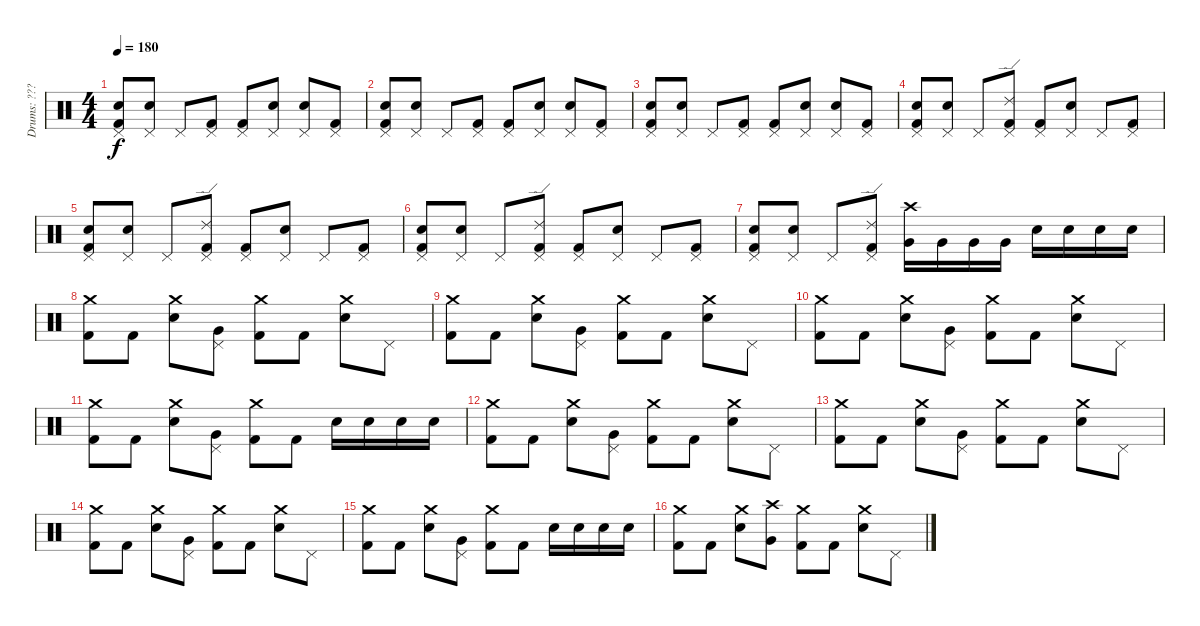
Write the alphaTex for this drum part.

\track ("Drums: ???" "Drums: ???") {instrument percussion}
\staff {score}
\articulation defaults
\ts (4 4)
\tempo 180
\clef neutral
\ks c
("Pedal Hi-Hat (hit)" "Electric Snare (hit)" "Kick (hit) 2").8{dy f} ("Pedal Hi-Hat (hit)" "Electric Snare (hit)").8 "Pedal Hi-Hat (hit)".8 ("Pedal Hi-Hat (hit)" "Kick (hit) 2").8 ("Pedal Hi-Hat (hit)" "Kick (hit) 2").8 ("Pedal Hi-Hat (hit)" "Electric Snare (hit)").8 ("Pedal Hi-Hat (hit)" "Electric Snare (hit)").8 ("Pedal Hi-Hat (hit)" "Kick (hit) 2").8 |
("Pedal Hi-Hat (hit)" "Electric Snare (hit)" "Kick (hit) 2").8 ("Pedal Hi-Hat (hit)" "Electric Snare (hit)").8 "Pedal Hi-Hat (hit)".8 ("Pedal Hi-Hat (hit)" "Kick (hit) 2").8 ("Pedal Hi-Hat (hit)" "Kick (hit) 2").8 ("Pedal Hi-Hat (hit)" "Electric Snare (hit)").8 ("Pedal Hi-Hat (hit)" "Electric Snare (hit)").8 ("Pedal Hi-Hat (hit)" "Kick (hit) 2").8 |
("Pedal Hi-Hat (hit)" "Electric Snare (hit)" "Kick (hit) 2").8 ("Pedal Hi-Hat (hit)" "Electric Snare (hit)").8 "Pedal Hi-Hat (hit)".8 ("Pedal Hi-Hat (hit)" "Kick (hit) 2").8 ("Pedal Hi-Hat (hit)" "Kick (hit) 2").8 ("Pedal Hi-Hat (hit)" "Electric Snare (hit)").8 ("Pedal Hi-Hat (hit)" "Electric Snare (hit)").8 ("Pedal Hi-Hat (hit)" "Kick (hit) 2").8 |
("Pedal Hi-Hat (hit)" "Electric Snare (hit)" "Kick (hit) 2").8 ("Pedal Hi-Hat (hit)" "Electric Snare (hit)").8 "Pedal Hi-Hat (hit)".8 ("Pedal Hi-Hat (hit)" "Ride (edge) 2" "Kick (hit) 2").8 ("Pedal Hi-Hat (hit)" "Kick (hit) 2").8 ("Pedal Hi-Hat (hit)" "Electric Snare (hit)").8 "Pedal Hi-Hat (hit)".8 ("Pedal Hi-Hat (hit)" "Kick (hit) 2").8 |
("Pedal Hi-Hat (hit)" "Electric Snare (hit)" "Kick (hit) 2").8 ("Pedal Hi-Hat (hit)" "Electric Snare (hit)").8 "Pedal Hi-Hat (hit)".8 ("Pedal Hi-Hat (hit)" "Ride (edge) 2" "Kick (hit) 2").8 ("Pedal Hi-Hat (hit)" "Kick (hit) 2").8 ("Pedal Hi-Hat (hit)" "Electric Snare (hit)").8 "Pedal Hi-Hat (hit)".8 ("Pedal Hi-Hat (hit)" "Kick (hit) 2").8 |
("Pedal Hi-Hat (hit)" "Electric Snare (hit)" "Kick (hit) 2").8 ("Pedal Hi-Hat (hit)" "Electric Snare (hit)").8 "Pedal Hi-Hat (hit)".8 ("Pedal Hi-Hat (hit)" "Ride (edge) 2" "Kick (hit) 2").8 ("Pedal Hi-Hat (hit)" "Kick (hit) 2").8 ("Pedal Hi-Hat (hit)" "Electric Snare (hit)").8 "Pedal Hi-Hat (hit)".8 ("Pedal Hi-Hat (hit)" "Kick (hit) 2").8 |
("Pedal Hi-Hat (hit)" "Electric Snare (hit)" "Kick (hit) 2").8 ("Pedal Hi-Hat (hit)" "Electric Snare (hit)").8 "Pedal Hi-Hat (hit)".8 ("Pedal Hi-Hat (hit)" "Ride (edge) 2" "Kick (hit) 2").8 ("Crash high (hit)" "Very Low Tom (hit)").16 "Very Low Tom (hit)".16 "Very Low Tom (hit)".16 "Very Low Tom (hit)".16 "Electric Snare (hit)".16 "Electric Snare (hit)".16 "Electric Snare (hit)".16 "Electric Snare (hit)".16 |
("Crash medium (hit)" "Kick (hit) 2").8 "Kick (hit) 2".8 ("Crash medium (hit)" "Electric Snare (hit)").8 ("Pedal Hi-Hat (hit)" "Very Low Tom (hit)").8 ("Crash medium (hit)" "Kick (hit) 2").8 "Kick (hit) 2".8 ("Crash medium (hit)" "Electric Snare (hit)").8 "Pedal Hi-Hat (hit)".8 |
("Crash medium (hit)" "Kick (hit) 2").8 "Kick (hit) 2".8 ("Crash medium (hit)" "Electric Snare (hit)").8 ("Pedal Hi-Hat (hit)" "Very Low Tom (hit)").8 ("Crash medium (hit)" "Kick (hit) 2").8 "Kick (hit) 2".8 ("Crash medium (hit)" "Electric Snare (hit)").8 "Pedal Hi-Hat (hit)".8 |
("Crash medium (hit)" "Kick (hit) 2").8 "Kick (hit) 2".8 ("Crash medium (hit)" "Electric Snare (hit)").8 ("Pedal Hi-Hat (hit)" "Very Low Tom (hit)").8 ("Crash medium (hit)" "Kick (hit) 2").8 "Kick (hit) 2".8 ("Crash medium (hit)" "Electric Snare (hit)").8 "Pedal Hi-Hat (hit)".8 |
("Crash medium (hit)" "Kick (hit) 2").8 "Kick (hit) 2".8 ("Crash medium (hit)" "Electric Snare (hit)").8 ("Pedal Hi-Hat (hit)" "Very Low Tom (hit)").8 ("Crash medium (hit)" "Kick (hit) 2").8 "Kick (hit) 2".8 "Electric Snare (hit)".16 "Electric Snare (hit)".16 "Electric Snare (hit)".16 "Electric Snare (hit)".16 |
("Crash medium (hit)" "Kick (hit) 2").8 "Kick (hit) 2".8 ("Crash medium (hit)" "Electric Snare (hit)").8 ("Pedal Hi-Hat (hit)" "Very Low Tom (hit)").8 ("Crash medium (hit)" "Kick (hit) 2").8 "Kick (hit) 2".8 ("Crash medium (hit)" "Electric Snare (hit)").8 "Pedal Hi-Hat (hit)".8 |
("Crash medium (hit)" "Kick (hit) 2").8 "Kick (hit) 2".8 ("Crash medium (hit)" "Electric Snare (hit)").8 ("Pedal Hi-Hat (hit)" "Very Low Tom (hit)").8 ("Crash medium (hit)" "Kick (hit) 2").8 "Kick (hit) 2".8 ("Crash medium (hit)" "Electric Snare (hit)").8 "Pedal Hi-Hat (hit)".8 |
("Crash medium (hit)" "Kick (hit) 2").8 "Kick (hit) 2".8 ("Crash medium (hit)" "Electric Snare (hit)").8 ("Pedal Hi-Hat (hit)" "Very Low Tom (hit)").8 ("Crash medium (hit)" "Kick (hit) 2").8 "Kick (hit) 2".8 ("Crash medium (hit)" "Electric Snare (hit)").8 "Pedal Hi-Hat (hit)".8 |
("Crash medium (hit)" "Kick (hit) 2").8 "Kick (hit) 2".8 ("Crash medium (hit)" "Electric Snare (hit)").8 ("Pedal Hi-Hat (hit)" "Very Low Tom (hit)").8 ("Crash medium (hit)" "Kick (hit) 2").8 "Kick (hit) 2".8 "Electric Snare (hit)".16 "Electric Snare (hit)".16 "Electric Snare (hit)".16 "Electric Snare (hit)".16 |
("Crash medium (hit)" "Kick (hit) 2").8 "Kick (hit) 2".8 ("Crash medium (hit)" "Electric Snare (hit)").8 ("Crash high (hit)" "Very Low Tom (hit)").8 ("Crash medium (hit)" "Kick (hit) 2").8 "Kick (hit) 2".8 ("Crash medium (hit)" "Electric Snare (hit)").8 "Pedal Hi-Hat (hit)".8
